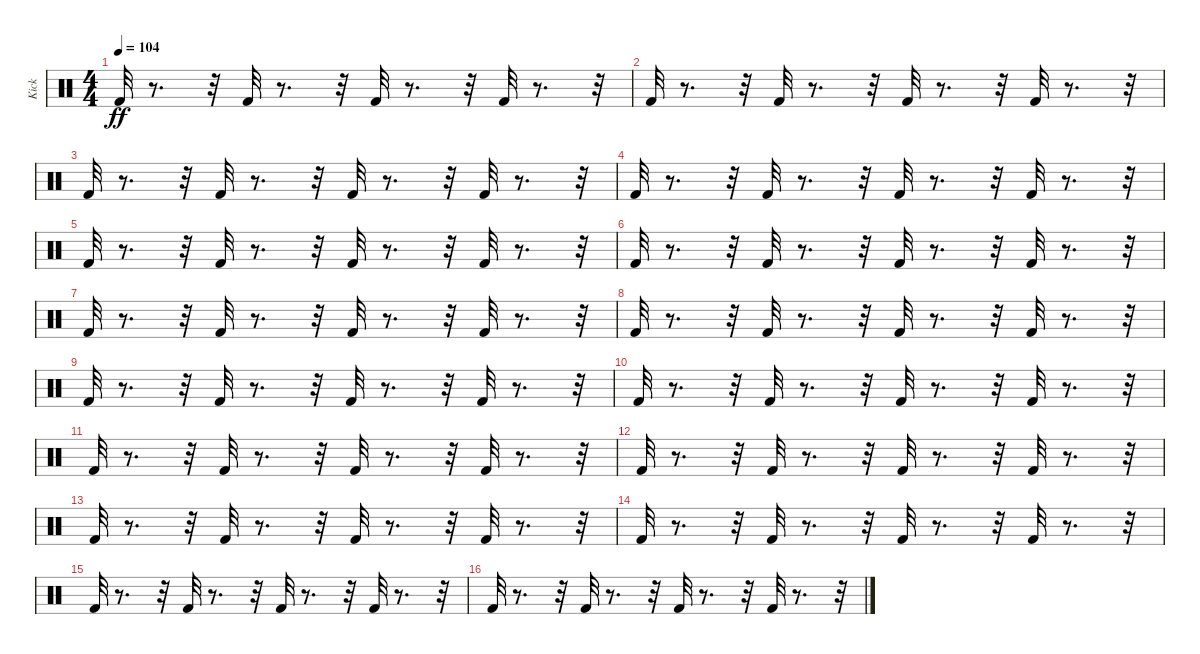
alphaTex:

\track ("Kick" "Kick") {instrument percussion}
\staff {score}
\articulation defaults
\ts (4 4)
\tempo 104
\clef neutral
\ks c "Kick (hit) 2".32{dy ff}
r.8{d} r.32 "Kick (hit) 2".32 r.8{d} r.32 "Kick (hit) 2".32 r.8{d} r.32 "Kick (hit) 2".32 r.8{d} r.32 |
"Kick (hit) 2".32 r.8{d} r.32 "Kick (hit) 2".32 r.8{d} r.32 "Kick (hit) 2".32 r.8{d} r.32 "Kick (hit) 2".32 r.8{d} r.32 |
"Kick (hit) 2".32 r.8{d} r.32 "Kick (hit) 2".32 r.8{d} r.32 "Kick (hit) 2".32 r.8{d} r.32 "Kick (hit) 2".32 r.8{d} r.32 |
"Kick (hit) 2".32 r.8{d} r.32 "Kick (hit) 2".32 r.8{d} r.32 "Kick (hit) 2".32 r.8{d} r.32 "Kick (hit) 2".32 r.8{d} r.32 |
"Kick (hit) 2".32 r.8{d} r.32 "Kick (hit) 2".32 r.8{d} r.32 "Kick (hit) 2".32 r.8{d} r.32 "Kick (hit) 2".32 r.8{d} r.32 |
"Kick (hit) 2".32 r.8{d} r.32 "Kick (hit) 2".32 r.8{d} r.32 "Kick (hit) 2".32 r.8{d} r.32 "Kick (hit) 2".32 r.8{d} r.32 |
"Kick (hit) 2".32 r.8{d} r.32 "Kick (hit) 2".32 r.8{d} r.32 "Kick (hit) 2".32 r.8{d} r.32 "Kick (hit) 2".32 r.8{d} r.32 |
"Kick (hit) 2".32 r.8{d} r.32 "Kick (hit) 2".32 r.8{d} r.32 "Kick (hit) 2".32 r.8{d} r.32 "Kick (hit) 2".32 r.8{d} r.32 |
"Kick (hit) 2".32 r.8{d} r.32 "Kick (hit) 2".32 r.8{d} r.32 "Kick (hit) 2".32 r.8{d} r.32 "Kick (hit) 2".32 r.8{d} r.32 |
"Kick (hit) 2".32 r.8{d} r.32 "Kick (hit) 2".32 r.8{d} r.32 "Kick (hit) 2".32 r.8{d} r.32 "Kick (hit) 2".32 r.8{d} r.32 |
"Kick (hit) 2".32 r.8{d} r.32 "Kick (hit) 2".32 r.8{d} r.32 "Kick (hit) 2".32 r.8{d} r.32 "Kick (hit) 2".32 r.8{d} r.32 |
"Kick (hit) 2".32 r.8{d} r.32 "Kick (hit) 2".32 r.8{d} r.32 "Kick (hit) 2".32 r.8{d} r.32 "Kick (hit) 2".32 r.8{d} r.32 |
"Kick (hit) 2".32 r.8{d} r.32 "Kick (hit) 2".32 r.8{d} r.32 "Kick (hit) 2".32 r.8{d} r.32 "Kick (hit) 2".32 r.8{d} r.32 |
"Kick (hit) 2".32 r.8{d} r.32 "Kick (hit) 2".32 r.8{d} r.32 "Kick (hit) 2".32 r.8{d} r.32 "Kick (hit) 2".32 r.8{d} r.32 |
"Kick (hit) 2".32 r.8{d} r.32 "Kick (hit) 2".32 r.8{d} r.32 "Kick (hit) 2".32 r.8{d} r.32 "Kick (hit) 2".32 r.8{d} r.32 |
"Kick (hit) 2".32 r.8{d} r.32 "Kick (hit) 2".32 r.8{d} r.32 "Kick (hit) 2".32 r.8{d} r.32 "Kick (hit) 2".32 r.8{d} r.32
